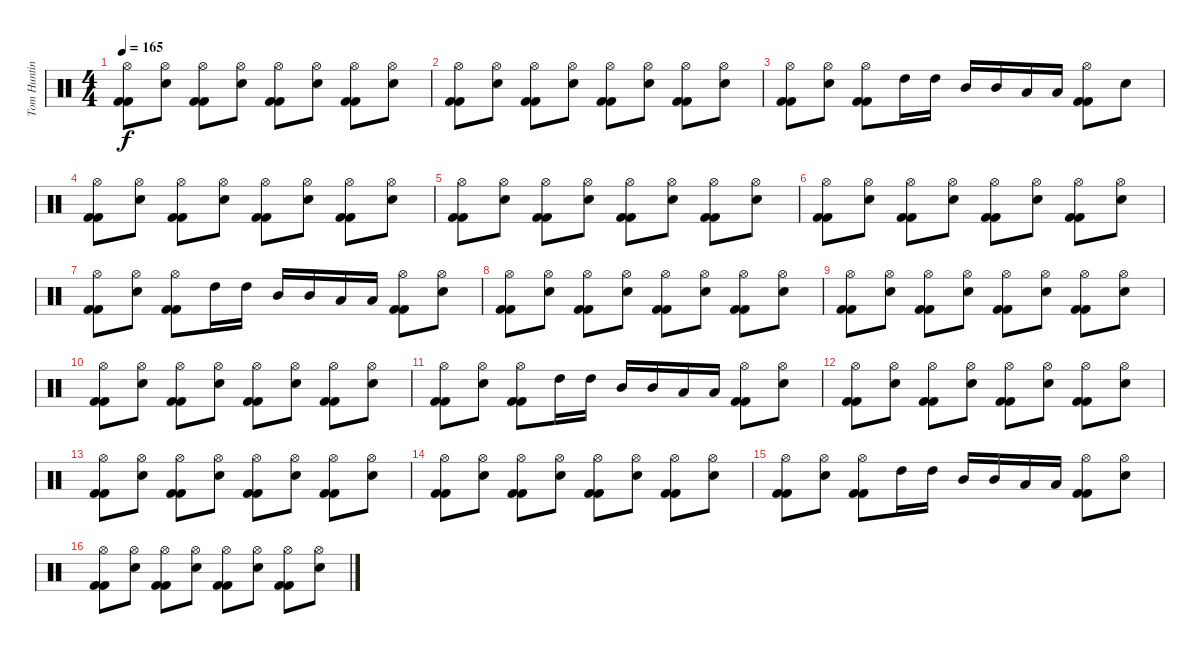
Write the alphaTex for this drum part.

\track ("Tom Hunting" "Tom Huntin") {instrument percussion}
\staff {score}
\articulation defaults
\ts (4 4)
\tempo 165
\clef neutral
\ks c
("Kick (hit) 2" "Kick (hit) 2" "Hi-Hat (open)").8{dy f} ("Electric Snare (hit)" "Hi-Hat (open)").8 ("Kick (hit) 2" "Kick (hit) 2" "Hi-Hat (open)").8 ("Electric Snare (hit)" "Hi-Hat (open)").8 ("Kick (hit) 2" "Kick (hit) 2" "Hi-Hat (open)").8 ("Electric Snare (hit)" "Hi-Hat (open)").8 ("Kick (hit) 2" "Kick (hit) 2" "Hi-Hat (open)").8 ("Electric Snare (hit)" "Hi-Hat (open)").8 |
("Kick (hit) 2" "Kick (hit) 2" "Hi-Hat (open)").8 ("Electric Snare (hit)" "Hi-Hat (open)").8 ("Kick (hit) 2" "Kick (hit) 2" "Hi-Hat (open)").8 ("Electric Snare (hit)" "Hi-Hat (open)").8 ("Kick (hit) 2" "Kick (hit) 2" "Hi-Hat (open)").8 ("Electric Snare (hit)" "Hi-Hat (open)").8 ("Kick (hit) 2" "Kick (hit) 2" "Hi-Hat (open)").8 ("Electric Snare (hit)" "Hi-Hat (open)").8 |
("Kick (hit) 2" "Kick (hit) 2" "Hi-Hat (open)").8 ("Electric Snare (hit)" "Hi-Hat (open)").8 ("Kick (hit) 2" "Kick (hit) 2" "Hi-Hat (open)").8 "High Tom (hit)".16 "High Tom (hit)".16 "Mid Tom (hit)".16 "Mid Tom (hit)".16 "Low Tom (hit)".16 "Low Tom (hit)".16 ("Kick (hit) 2" "Kick (hit) 2" "Hi-Hat (open)").8 "Electric Snare (hit)".8 |
("Kick (hit) 2" "Kick (hit) 2" "Hi-Hat (open)").8 ("Electric Snare (hit)" "Hi-Hat (open)").8 ("Kick (hit) 2" "Kick (hit) 2" "Hi-Hat (open)").8 ("Electric Snare (hit)" "Hi-Hat (open)").8 ("Kick (hit) 2" "Kick (hit) 2" "Hi-Hat (open)").8 ("Electric Snare (hit)" "Hi-Hat (open)").8 ("Kick (hit) 2" "Kick (hit) 2" "Hi-Hat (open)").8 ("Electric Snare (hit)" "Hi-Hat (open)").8 |
("Kick (hit) 2" "Kick (hit) 2" "Hi-Hat (open)").8 ("Electric Snare (hit)" "Hi-Hat (open)").8 ("Kick (hit) 2" "Kick (hit) 2" "Hi-Hat (open)").8 ("Electric Snare (hit)" "Hi-Hat (open)").8 ("Kick (hit) 2" "Kick (hit) 2" "Hi-Hat (open)").8 ("Electric Snare (hit)" "Hi-Hat (open)").8 ("Kick (hit) 2" "Kick (hit) 2" "Hi-Hat (open)").8 ("Electric Snare (hit)" "Hi-Hat (open)").8 |
("Kick (hit) 2" "Kick (hit) 2" "Hi-Hat (open)").8 ("Electric Snare (hit)" "Hi-Hat (open)").8 ("Kick (hit) 2" "Kick (hit) 2" "Hi-Hat (open)").8 ("Electric Snare (hit)" "Hi-Hat (open)").8 ("Kick (hit) 2" "Kick (hit) 2" "Hi-Hat (open)").8 ("Electric Snare (hit)" "Hi-Hat (open)").8 ("Kick (hit) 2" "Kick (hit) 2" "Hi-Hat (open)").8 ("Electric Snare (hit)" "Hi-Hat (open)").8 |
("Kick (hit) 2" "Kick (hit) 2" "Hi-Hat (open)").8 ("Electric Snare (hit)" "Hi-Hat (open)").8 ("Kick (hit) 2" "Kick (hit) 2" "Hi-Hat (open)").8 "High Tom (hit)".16 "High Tom (hit)".16 "Mid Tom (hit)".16 "Mid Tom (hit)".16 "Low Tom (hit)".16 "Low Tom (hit)".16 ("Kick (hit) 2" "Kick (hit) 2" "Hi-Hat (open)").8 ("Electric Snare (hit)" "Hi-Hat (open)").8 |
("Kick (hit) 2" "Kick (hit) 2" "Hi-Hat (open)").8 ("Electric Snare (hit)" "Hi-Hat (open)").8 ("Kick (hit) 2" "Kick (hit) 2" "Hi-Hat (open)").8 ("Electric Snare (hit)" "Hi-Hat (open)").8 ("Kick (hit) 2" "Kick (hit) 2" "Hi-Hat (open)").8 ("Electric Snare (hit)" "Hi-Hat (open)").8 ("Kick (hit) 2" "Kick (hit) 2" "Hi-Hat (open)").8 ("Electric Snare (hit)" "Hi-Hat (open)").8 |
("Kick (hit) 2" "Kick (hit) 2" "Hi-Hat (open)").8 ("Electric Snare (hit)" "Hi-Hat (open)").8 ("Kick (hit) 2" "Kick (hit) 2" "Hi-Hat (open)").8 ("Electric Snare (hit)" "Hi-Hat (open)").8 ("Kick (hit) 2" "Kick (hit) 2" "Hi-Hat (open)").8 ("Electric Snare (hit)" "Hi-Hat (open)").8 ("Kick (hit) 2" "Kick (hit) 2" "Hi-Hat (open)").8 ("Electric Snare (hit)" "Hi-Hat (open)").8 |
("Kick (hit) 2" "Kick (hit) 2" "Hi-Hat (open)").8 ("Electric Snare (hit)" "Hi-Hat (open)").8 ("Kick (hit) 2" "Kick (hit) 2" "Hi-Hat (open)").8 ("Electric Snare (hit)" "Hi-Hat (open)").8 ("Kick (hit) 2" "Kick (hit) 2" "Hi-Hat (open)").8 ("Electric Snare (hit)" "Hi-Hat (open)").8 ("Kick (hit) 2" "Kick (hit) 2" "Hi-Hat (open)").8 ("Electric Snare (hit)" "Hi-Hat (open)").8 |
("Kick (hit) 2" "Kick (hit) 2" "Hi-Hat (open)").8 ("Electric Snare (hit)" "Hi-Hat (open)").8 ("Kick (hit) 2" "Kick (hit) 2" "Hi-Hat (open)").8 "High Tom (hit)".16 "High Tom (hit)".16 "Mid Tom (hit)".16 "Mid Tom (hit)".16 "Low Tom (hit)".16 "Low Tom (hit)".16 ("Kick (hit) 2" "Kick (hit) 2" "Hi-Hat (open)").8 ("Electric Snare (hit)" "Hi-Hat (open)").8 |
("Kick (hit) 2" "Kick (hit) 2" "Hi-Hat (open)").8 ("Electric Snare (hit)" "Hi-Hat (open)").8 ("Kick (hit) 2" "Kick (hit) 2" "Hi-Hat (open)").8 ("Electric Snare (hit)" "Hi-Hat (open)").8 ("Kick (hit) 2" "Kick (hit) 2" "Hi-Hat (open)").8 ("Electric Snare (hit)" "Hi-Hat (open)").8 ("Kick (hit) 2" "Kick (hit) 2" "Hi-Hat (open)").8 ("Electric Snare (hit)" "Hi-Hat (open)").8 |
("Kick (hit) 2" "Kick (hit) 2" "Hi-Hat (open)").8 ("Electric Snare (hit)" "Hi-Hat (open)").8 ("Kick (hit) 2" "Kick (hit) 2" "Hi-Hat (open)").8 ("Electric Snare (hit)" "Hi-Hat (open)").8 ("Kick (hit) 2" "Kick (hit) 2" "Hi-Hat (open)").8 ("Electric Snare (hit)" "Hi-Hat (open)").8 ("Kick (hit) 2" "Kick (hit) 2" "Hi-Hat (open)").8 ("Electric Snare (hit)" "Hi-Hat (open)").8 |
("Kick (hit) 2" "Kick (hit) 2" "Hi-Hat (open)").8 ("Electric Snare (hit)" "Hi-Hat (open)").8 ("Kick (hit) 2" "Kick (hit) 2" "Hi-Hat (open)").8 ("Electric Snare (hit)" "Hi-Hat (open)").8 ("Kick (hit) 2" "Kick (hit) 2" "Hi-Hat (open)").8 ("Electric Snare (hit)" "Hi-Hat (open)").8 ("Kick (hit) 2" "Kick (hit) 2" "Hi-Hat (open)").8 ("Electric Snare (hit)" "Hi-Hat (open)").8 |
("Kick (hit) 2" "Kick (hit) 2" "Hi-Hat (open)").8 ("Electric Snare (hit)" "Hi-Hat (open)").8 ("Kick (hit) 2" "Kick (hit) 2" "Hi-Hat (open)").8 "High Tom (hit)".16 "High Tom (hit)".16 "Mid Tom (hit)".16 "Mid Tom (hit)".16 "Low Tom (hit)".16 "Low Tom (hit)".16 ("Kick (hit) 2" "Kick (hit) 2" "Hi-Hat (open)").8 ("Electric Snare (hit)" "Hi-Hat (open)").8 |
("Kick (hit) 2" "Kick (hit) 2" "Hi-Hat (open)").8 ("Electric Snare (hit)" "Hi-Hat (open)").8 ("Kick (hit) 2" "Kick (hit) 2" "Hi-Hat (open)").8 ("Electric Snare (hit)" "Hi-Hat (open)").8 ("Kick (hit) 2" "Kick (hit) 2" "Hi-Hat (open)").8 ("Electric Snare (hit)" "Hi-Hat (open)").8 ("Kick (hit) 2" "Kick (hit) 2" "Hi-Hat (open)").8 ("Electric Snare (hit)" "Hi-Hat (open)").8
